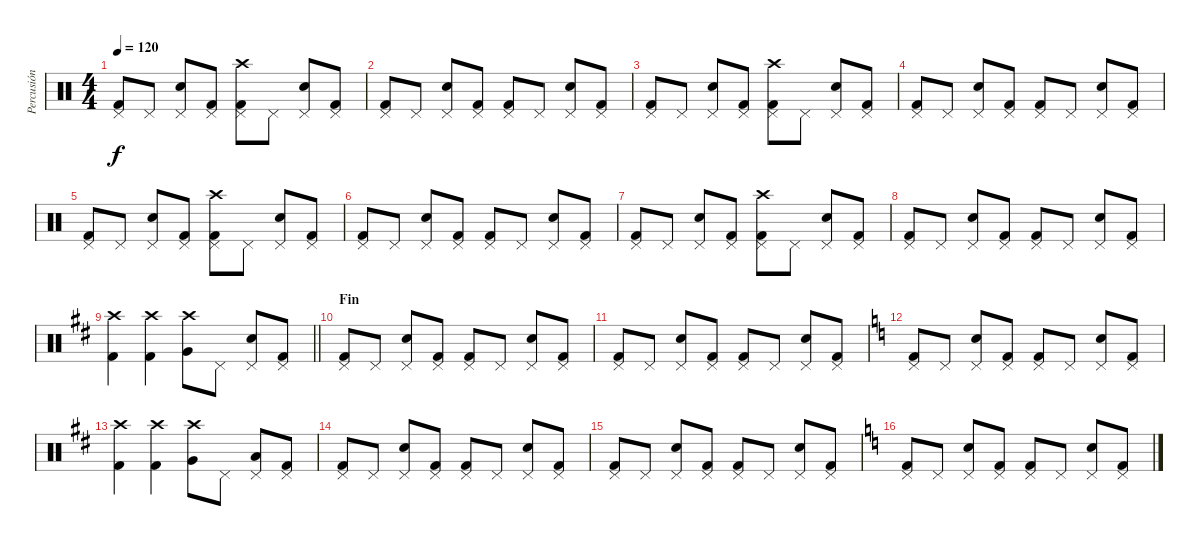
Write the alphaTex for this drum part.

\track ("Percusión" "Percusión") {instrument percussion}
\staff {score}
\articulation defaults
\ts (4 4)
\tempo 120
\clef neutral
\ks c
("Pedal Hi-Hat (hit)" "Kick (hit) 2").8{dy f} "Pedal Hi-Hat (hit)".8 ("Pedal Hi-Hat (hit)" "Electric Snare (hit)").8 ("Pedal Hi-Hat (hit)" "Kick (hit) 2").8 ("Pedal Hi-Hat (hit)" "Crash high (hit)" "Kick (hit) 2").8 "Pedal Hi-Hat (hit)".8 ("Pedal Hi-Hat (hit)" "Electric Snare (hit)").8 ("Pedal Hi-Hat (hit)" "Kick (hit) 2").8 |
("Pedal Hi-Hat (hit)" "Kick (hit) 2").8 "Pedal Hi-Hat (hit)".8 ("Pedal Hi-Hat (hit)" "Electric Snare (hit)").8 ("Pedal Hi-Hat (hit)" "Kick (hit) 2").8 ("Pedal Hi-Hat (hit)" "Kick (hit) 2").8 "Pedal Hi-Hat (hit)".8 ("Pedal Hi-Hat (hit)" "Electric Snare (hit)").8 ("Pedal Hi-Hat (hit)" "Kick (hit) 2").8 |
("Pedal Hi-Hat (hit)" "Kick (hit) 2").8 "Pedal Hi-Hat (hit)".8 ("Pedal Hi-Hat (hit)" "Electric Snare (hit)").8 ("Pedal Hi-Hat (hit)" "Kick (hit) 2").8 ("Pedal Hi-Hat (hit)" "Crash high (hit)" "Kick (hit) 2").8 "Pedal Hi-Hat (hit)".8 ("Pedal Hi-Hat (hit)" "Electric Snare (hit)").8 ("Pedal Hi-Hat (hit)" "Kick (hit) 2").8 |
("Pedal Hi-Hat (hit)" "Kick (hit) 2").8 "Pedal Hi-Hat (hit)".8 ("Pedal Hi-Hat (hit)" "Electric Snare (hit)").8 ("Pedal Hi-Hat (hit)" "Kick (hit) 2").8 ("Pedal Hi-Hat (hit)" "Kick (hit) 2").8 "Pedal Hi-Hat (hit)".8 ("Pedal Hi-Hat (hit)" "Electric Snare (hit)").8 ("Pedal Hi-Hat (hit)" "Kick (hit) 2").8 |
("Pedal Hi-Hat (hit)" "Kick (hit) 2").8 "Pedal Hi-Hat (hit)".8 ("Pedal Hi-Hat (hit)" "Electric Snare (hit)").8 ("Pedal Hi-Hat (hit)" "Kick (hit) 2").8 ("Pedal Hi-Hat (hit)" "Crash high (hit)" "Kick (hit) 2").8 "Pedal Hi-Hat (hit)".8 ("Pedal Hi-Hat (hit)" "Electric Snare (hit)").8 ("Pedal Hi-Hat (hit)" "Kick (hit) 2").8 |
("Pedal Hi-Hat (hit)" "Kick (hit) 2").8 "Pedal Hi-Hat (hit)".8 ("Pedal Hi-Hat (hit)" "Electric Snare (hit)").8 ("Pedal Hi-Hat (hit)" "Kick (hit) 2").8 ("Pedal Hi-Hat (hit)" "Kick (hit) 2").8 "Pedal Hi-Hat (hit)".8 ("Pedal Hi-Hat (hit)" "Electric Snare (hit)").8 ("Pedal Hi-Hat (hit)" "Kick (hit) 2").8 |
("Pedal Hi-Hat (hit)" "Kick (hit) 2").8 "Pedal Hi-Hat (hit)".8 ("Pedal Hi-Hat (hit)" "Electric Snare (hit)").8 ("Pedal Hi-Hat (hit)" "Kick (hit) 2").8 ("Pedal Hi-Hat (hit)" "Crash high (hit)" "Kick (hit) 2").8 "Pedal Hi-Hat (hit)".8 ("Pedal Hi-Hat (hit)" "Electric Snare (hit)").8 ("Pedal Hi-Hat (hit)" "Kick (hit) 2").8 |
("Pedal Hi-Hat (hit)" "Kick (hit) 2").8 "Pedal Hi-Hat (hit)".8 ("Pedal Hi-Hat (hit)" "Electric Snare (hit)").8 ("Pedal Hi-Hat (hit)" "Kick (hit) 2").8 ("Pedal Hi-Hat (hit)" "Kick (hit) 2").8 "Pedal Hi-Hat (hit)".8 ("Pedal Hi-Hat (hit)" "Electric Snare (hit)").8 ("Pedal Hi-Hat (hit)" "Kick (hit) 2").8 |
\barLineRight lightlight
\ks d
("Crash high (hit)" "Kick (hit) 2").4 ("Crash high (hit)" "Kick (hit) 2").4 ("Very Low Tom (hit)" "Crash high (hit)").8 "Pedal Hi-Hat (hit)".8 ("Pedal Hi-Hat (hit)" "Electric Snare (hit)").8 ("Pedal Hi-Hat (hit)" "Kick (hit) 2").8 |
\section ("" "Fin")
("Pedal Hi-Hat (hit)" "Kick (hit) 2").8 "Pedal Hi-Hat (hit)".8 ("Pedal Hi-Hat (hit)" "Electric Snare (hit)").8 ("Pedal Hi-Hat (hit)" "Kick (hit) 2").8 ("Pedal Hi-Hat (hit)" "Kick (hit) 2").8 "Pedal Hi-Hat (hit)".8 ("Pedal Hi-Hat (hit)" "Electric Snare (hit)").8 ("Pedal Hi-Hat (hit)" "Kick (hit) 2").8 |
("Pedal Hi-Hat (hit)" "Kick (hit) 2").8 "Pedal Hi-Hat (hit)".8 ("Pedal Hi-Hat (hit)" "Electric Snare (hit)").8 ("Pedal Hi-Hat (hit)" "Kick (hit) 2").8 ("Pedal Hi-Hat (hit)" "Kick (hit) 2").8 "Pedal Hi-Hat (hit)".8 ("Pedal Hi-Hat (hit)" "Electric Snare (hit)").8 ("Pedal Hi-Hat (hit)" "Kick (hit) 2").8 |
\ks c
("Pedal Hi-Hat (hit)" "Kick (hit) 2").8 "Pedal Hi-Hat (hit)".8 ("Pedal Hi-Hat (hit)" "Electric Snare (hit)").8 ("Pedal Hi-Hat (hit)" "Kick (hit) 2").8 ("Pedal Hi-Hat (hit)" "Kick (hit) 2").8 "Pedal Hi-Hat (hit)".8 ("Pedal Hi-Hat (hit)" "Electric Snare (hit)").8 ("Pedal Hi-Hat (hit)" "Kick (hit) 2").8 |
\ks d
("Crash high (hit)" "Kick (hit) 2").4 ("Crash high (hit)" "Kick (hit) 2").4 ("Very Low Tom (hit)" "Crash high (hit)").8 "Pedal Hi-Hat (hit)".8 ("Pedal Hi-Hat (hit)" "Low Tom (hit)").8 ("Pedal Hi-Hat (hit)" "Kick (hit) 2").8 |
("Pedal Hi-Hat (hit)" "Kick (hit) 2").8{volume 10} "Pedal Hi-Hat (hit)".8 ("Pedal Hi-Hat (hit)" "Electric Snare (hit)").8 ("Pedal Hi-Hat (hit)" "Kick (hit) 2").8{volume 10} ("Pedal Hi-Hat (hit)" "Kick (hit) 2").8 "Pedal Hi-Hat (hit)".8{volume 10} ("Pedal Hi-Hat (hit)" "Electric Snare (hit)").8{volume 10} ("Pedal Hi-Hat (hit)" "Kick (hit) 2").8{volume 10} |
("Pedal Hi-Hat (hit)" "Kick (hit) 2").8{volume 9} "Pedal Hi-Hat (hit)".8{volume 9} ("Pedal Hi-Hat (hit)" "Electric Snare (hit)").8{volume 9} ("Pedal Hi-Hat (hit)" "Kick (hit) 2").8 ("Pedal Hi-Hat (hit)" "Kick (hit) 2").8{volume 9} "Pedal Hi-Hat (hit)".8{volume 9} ("Pedal Hi-Hat (hit)" "Electric Snare (hit)").8{volume 8} ("Pedal Hi-Hat (hit)" "Kick (hit) 2").8{volume 8} |
\ks c
("Pedal Hi-Hat (hit)" "Kick (hit) 2").8{volume 8} "Pedal Hi-Hat (hit)".8{volume 8} ("Pedal Hi-Hat (hit)" "Electric Snare (hit)").8{volume 8} ("Pedal Hi-Hat (hit)" "Kick (hit) 2").8{volume 8} ("Pedal Hi-Hat (hit)" "Kick (hit) 2").8{volume 7} "Pedal Hi-Hat (hit)".8{volume 7} ("Pedal Hi-Hat (hit)" "Electric Snare (hit)").8{volume 7} ("Pedal Hi-Hat (hit)" "Kick (hit) 2").8{volume 7}
